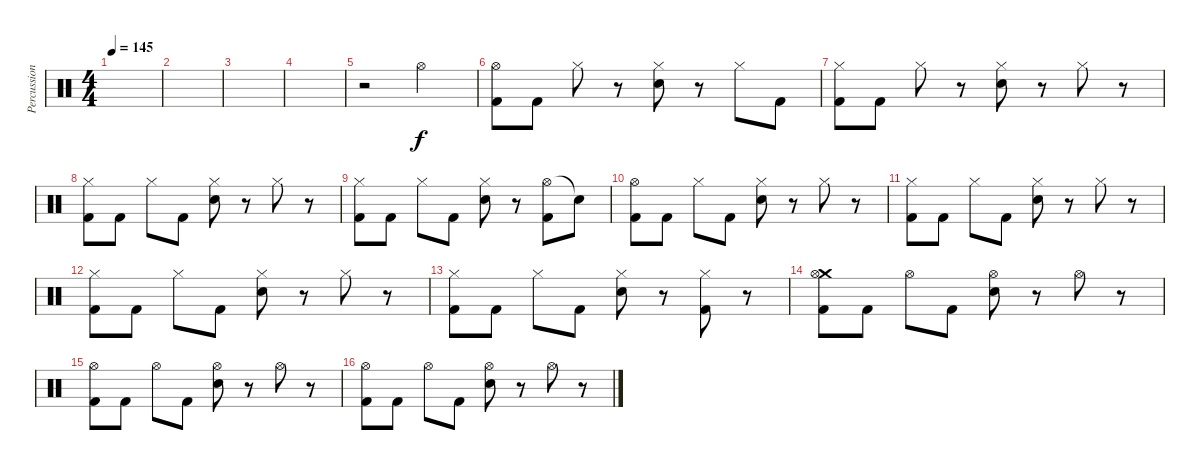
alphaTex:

\track ("Percussioni" "Percussion") {instrument percussion}
\staff {score}
\articulation defaults
\ts (4 4)
\tempo 145
\clef neutral
\ks c
|
|
|
|
r.2 "Hi-Hat (open)".2 |
("Hi-Hat (open)" "Kick (hit) 2").8 "Kick (hit) 2".8 "Hi-Hat (closed)".8 r.8 ("Hi-Hat (closed)" "Snare (hit) 2").8 r.8 "Hi-Hat (closed)".8 "Kick (hit) 2".8 |
("Hi-Hat (closed)" "Kick (hit) 2").8 "Kick (hit) 2".8 "Hi-Hat (closed)".8 r.8 ("Hi-Hat (closed)" "Snare (hit) 2").8 r.8 "Hi-Hat (closed)".8 r.8 |
("Hi-Hat (closed)" "Kick (hit) 2").8 "Kick (hit) 2".8 "Hi-Hat (closed)".8 "Kick (hit) 2".8 ("Hi-Hat (closed)" "Snare (hit) 2").8 r.8 "Hi-Hat (closed)".8 r.8 |
("Hi-Hat (closed)" "Kick (hit) 2").8 "Kick (hit) 2".8 "Hi-Hat (closed)".8 "Kick (hit) 2".8 ("Hi-Hat (closed)" "Snare (hit) 2").8 r.8 ("Hi-Hat (open)" "Kick (hit) 2").8 "Snare (hit)"{t}.8 |
("Hi-Hat (open)" "Kick (hit) 2").8 "Kick (hit) 2".8 "Hi-Hat (closed)".8 "Kick (hit) 2".8 ("Hi-Hat (closed)" "Snare (hit) 2").8 r.8 "Hi-Hat (closed)".8 r.8 |
("Hi-Hat (closed)" "Kick (hit) 2").8 "Kick (hit) 2".8 "Hi-Hat (closed)".8 "Kick (hit) 2".8 ("Hi-Hat (closed)" "Snare (hit) 2").8 r.8 "Hi-Hat (closed)".8 r.8 |
("Hi-Hat (closed)" "Kick (hit) 2").8 "Kick (hit) 2".8 "Hi-Hat (closed)".8 "Kick (hit) 2".8 ("Hi-Hat (closed)" "Snare (hit) 2").8 r.8 "Hi-Hat (closed)".8 r.8 |
("Hi-Hat (closed)" "Kick (hit) 2").8 "Kick (hit) 2".8 "Hi-Hat (closed)".8 "Kick (hit) 2".8 ("Hi-Hat (closed)" "Snare (hit) 2").8 r.8 ("Hi-Hat (closed)" "Kick (hit) 2").8 r.8 |
("Crash medium (hit)" "Hi-Hat (open)" "Kick (hit) 2").8 "Kick (hit) 2".8 "Hi-Hat (open)".8 "Kick (hit) 2".8 ("Hi-Hat (open)" "Snare (hit) 2").8 r.8 "Hi-Hat (open)".8 r.8 |
("Hi-Hat (open)" "Kick (hit) 2").8 "Kick (hit) 2".8 "Hi-Hat (open)".8 "Kick (hit) 2".8 ("Hi-Hat (open)" "Snare (hit) 2").8 r.8 "Hi-Hat (open)".8 r.8 |
("Hi-Hat (open)" "Kick (hit) 2").8 "Kick (hit) 2".8 "Hi-Hat (open)".8 "Kick (hit) 2".8 ("Hi-Hat (open)" "Snare (hit) 2").8 r.8 "Hi-Hat (open)".8 r.8
